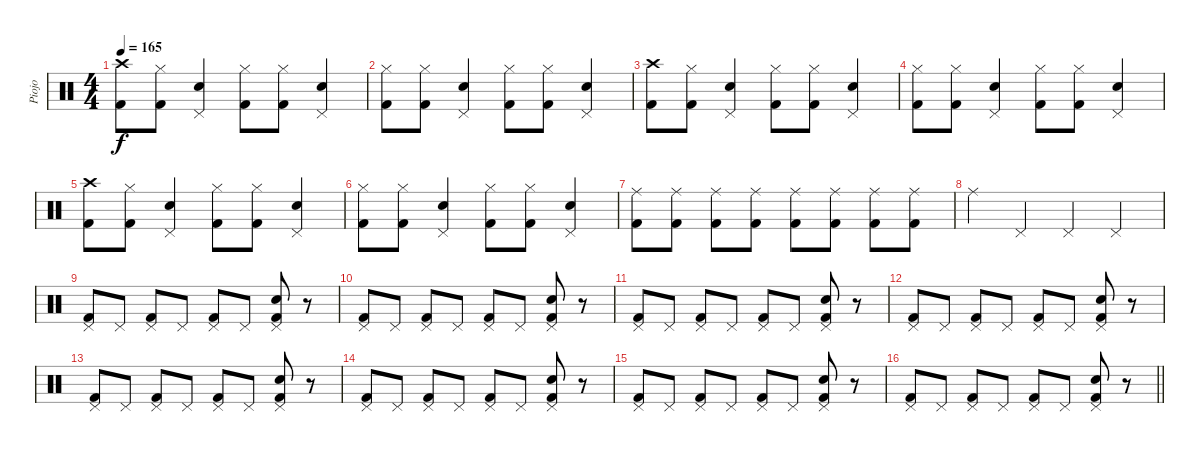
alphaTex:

\track ("Piojo" "Piojo") {instrument percussion}
\staff {score}
\articulation defaults
\ts (4 4)
\tempo 165
\clef neutral
\ks c
("Crash high (hit)" "Kick (hit) 2").8{dy f} ("Hi-Hat (closed)" "Kick (hit) 2").8 ("Pedal Hi-Hat (hit)" "Electric Snare (hit)").4 ("Hi-Hat (closed)" "Kick (hit) 2").8 ("Hi-Hat (closed)" "Kick (hit) 2").8 ("Pedal Hi-Hat (hit)" "Electric Snare (hit)").4 |
("Hi-Hat (closed)" "Kick (hit) 2").8 ("Hi-Hat (closed)" "Kick (hit) 2").8 ("Pedal Hi-Hat (hit)" "Electric Snare (hit)").4 ("Hi-Hat (closed)" "Kick (hit) 2").8 ("Hi-Hat (closed)" "Kick (hit) 2").8 ("Pedal Hi-Hat (hit)" "Electric Snare (hit)").4 |
("Crash high (hit)" "Kick (hit) 2").8 ("Hi-Hat (closed)" "Kick (hit) 2").8 ("Pedal Hi-Hat (hit)" "Electric Snare (hit)").4 ("Hi-Hat (closed)" "Kick (hit) 2").8 ("Hi-Hat (closed)" "Kick (hit) 2").8 ("Pedal Hi-Hat (hit)" "Electric Snare (hit)").4 |
("Hi-Hat (closed)" "Kick (hit) 2").8 ("Hi-Hat (closed)" "Kick (hit) 2").8 ("Pedal Hi-Hat (hit)" "Electric Snare (hit)").4 ("Hi-Hat (closed)" "Kick (hit) 2").8 ("Hi-Hat (closed)" "Kick (hit) 2").8 ("Pedal Hi-Hat (hit)" "Electric Snare (hit)").4 |
("Crash high (hit)" "Kick (hit) 2").8 ("Hi-Hat (closed)" "Kick (hit) 2").8 ("Pedal Hi-Hat (hit)" "Electric Snare (hit)").4 ("Hi-Hat (closed)" "Kick (hit) 2").8 ("Hi-Hat (closed)" "Kick (hit) 2").8 ("Pedal Hi-Hat (hit)" "Electric Snare (hit)").4 |
("Hi-Hat (closed)" "Kick (hit) 2").8 ("Hi-Hat (closed)" "Kick (hit) 2").8 ("Pedal Hi-Hat (hit)" "Electric Snare (hit)").4 ("Hi-Hat (closed)" "Kick (hit) 2").8 ("Hi-Hat (closed)" "Kick (hit) 2").8 ("Pedal Hi-Hat (hit)" "Electric Snare (hit)").4 |
("Ride (middle)" "Kick (hit) 2").8 ("Ride (middle)" "Kick (hit) 2").8 ("Ride (middle)" "Kick (hit) 2").8 ("Ride (middle)" "Kick (hit) 2").8 ("Ride (middle)" "Kick (hit) 2").8 ("Ride (middle)" "Kick (hit) 2").8 ("Ride (middle)" "Kick (hit) 2").8 ("Ride (middle)" "Kick (hit) 2").8 |
"Ride (middle)".4 "Pedal Hi-Hat (hit)".4 "Pedal Hi-Hat (hit)".4 "Pedal Hi-Hat (hit)".4 |
("Pedal Hi-Hat (hit)" "Kick (hit) 2").8 "Pedal Hi-Hat (hit)".8 ("Pedal Hi-Hat (hit)" "Kick (hit) 2").8 "Pedal Hi-Hat (hit)".8 ("Pedal Hi-Hat (hit)" "Kick (hit) 2").8 "Pedal Hi-Hat (hit)".8 ("Pedal Hi-Hat (hit)" "Electric Snare (hit)" "Kick (hit) 2").8 r.8 |
("Pedal Hi-Hat (hit)" "Kick (hit) 2").8 "Pedal Hi-Hat (hit)".8 ("Pedal Hi-Hat (hit)" "Kick (hit) 2").8 "Pedal Hi-Hat (hit)".8 ("Pedal Hi-Hat (hit)" "Kick (hit) 2").8 "Pedal Hi-Hat (hit)".8 ("Pedal Hi-Hat (hit)" "Electric Snare (hit)" "Kick (hit) 2").8 r.8 |
("Pedal Hi-Hat (hit)" "Kick (hit) 2").8 "Pedal Hi-Hat (hit)".8 ("Pedal Hi-Hat (hit)" "Kick (hit) 2").8 "Pedal Hi-Hat (hit)".8 ("Pedal Hi-Hat (hit)" "Kick (hit) 2").8 "Pedal Hi-Hat (hit)".8 ("Pedal Hi-Hat (hit)" "Electric Snare (hit)" "Kick (hit) 2").8 r.8 |
("Pedal Hi-Hat (hit)" "Kick (hit) 2").8 "Pedal Hi-Hat (hit)".8 ("Pedal Hi-Hat (hit)" "Kick (hit) 2").8 "Pedal Hi-Hat (hit)".8 ("Pedal Hi-Hat (hit)" "Kick (hit) 2").8 "Pedal Hi-Hat (hit)".8 ("Pedal Hi-Hat (hit)" "Electric Snare (hit)" "Kick (hit) 2").8 r.8 |
("Pedal Hi-Hat (hit)" "Kick (hit) 2").8 "Pedal Hi-Hat (hit)".8 ("Pedal Hi-Hat (hit)" "Kick (hit) 2").8 "Pedal Hi-Hat (hit)".8 ("Pedal Hi-Hat (hit)" "Kick (hit) 2").8 "Pedal Hi-Hat (hit)".8 ("Pedal Hi-Hat (hit)" "Electric Snare (hit)" "Kick (hit) 2").8 r.8 |
("Pedal Hi-Hat (hit)" "Kick (hit) 2").8 "Pedal Hi-Hat (hit)".8 ("Pedal Hi-Hat (hit)" "Kick (hit) 2").8 "Pedal Hi-Hat (hit)".8 ("Pedal Hi-Hat (hit)" "Kick (hit) 2").8 "Pedal Hi-Hat (hit)".8 ("Pedal Hi-Hat (hit)" "Electric Snare (hit)" "Kick (hit) 2").8 r.8 |
("Pedal Hi-Hat (hit)" "Kick (hit) 2").8 "Pedal Hi-Hat (hit)".8 ("Pedal Hi-Hat (hit)" "Kick (hit) 2").8 "Pedal Hi-Hat (hit)".8 ("Pedal Hi-Hat (hit)" "Kick (hit) 2").8 "Pedal Hi-Hat (hit)".8 ("Pedal Hi-Hat (hit)" "Electric Snare (hit)" "Kick (hit) 2").8 r.8 |
\barLineRight lightlight
("Pedal Hi-Hat (hit)" "Kick (hit) 2").8 "Pedal Hi-Hat (hit)".8 ("Pedal Hi-Hat (hit)" "Kick (hit) 2").8 "Pedal Hi-Hat (hit)".8 ("Pedal Hi-Hat (hit)" "Kick (hit) 2").8 "Pedal Hi-Hat (hit)".8 ("Pedal Hi-Hat (hit)" "Electric Snare (hit)" "Kick (hit) 2").8 r.8
